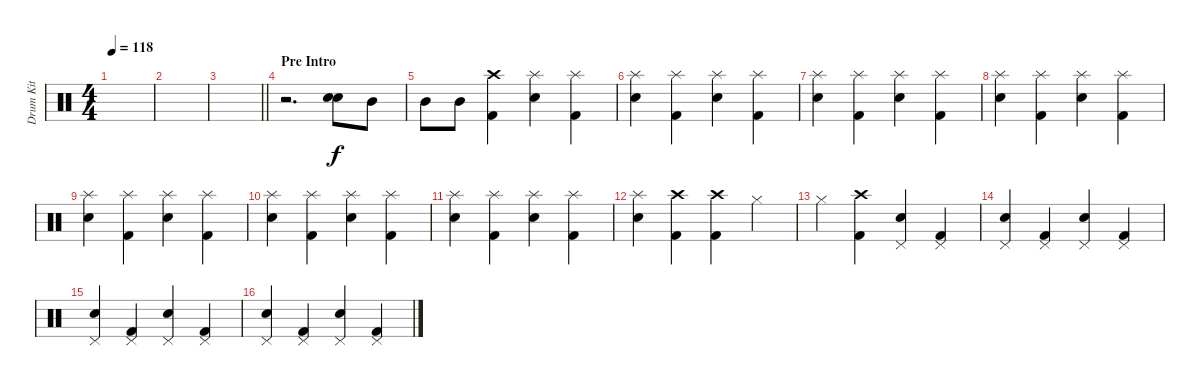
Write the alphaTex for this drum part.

\track ("Drum Kit" "Drum Kit") {instrument percussion}
\staff {score}
\articulation defaults
\ts (4 4)
\tempo 118
\clef neutral
\ks c
|
|
\barLineRight lightlight
|
\section ("" "Pre Intro")
r.2{d} ("Electric Snare (hit)" "Electric Snare (hit)").8{bd 240} "Mid Tom (hit)".8 |
"Mid Tom (hit)".8 "Mid Tom (hit)".8 ("Crash high (hit)" "Kick (hit) 2").4 ("Splash (hit)" "Electric Snare (hit)").4 ("Kick (hit) 2" "Splash (hit)").4 |
("Electric Snare (hit)" "Splash (hit)").4 ("Kick (hit) 2" "Splash (hit)").4 ("Electric Snare (hit)" "Splash (hit)").4 ("Splash (hit)" "Kick (hit) 2").4 |
("Splash (hit)" "Electric Snare (hit)").4 ("Kick (hit) 2" "Splash (hit)").4 ("Electric Snare (hit)" "Splash (hit)").4 ("Kick (hit) 2" "Splash (hit)").4 |
("Splash (hit)" "Electric Snare (hit)").4 ("Splash (hit)" "Kick (hit) 2").4 ("Splash (hit)" "Electric Snare (hit)").4 ("Kick (hit) 2" "Splash (hit)").4 |
("Electric Snare (hit)" "Splash (hit)").4 ("Kick (hit) 2" "Splash (hit)").4 ("Electric Snare (hit)" "Splash (hit)").4 ("Splash (hit)" "Kick (hit) 2").4 |
("Splash (hit)" "Electric Snare (hit)").4 ("Splash (hit)" "Kick (hit) 2").4 ("Splash (hit)" "Electric Snare (hit)").4 ("Kick (hit) 2" "Splash (hit)").4 |
("Splash (hit)" "Electric Snare (hit)").4 ("Splash (hit)" "Kick (hit) 2").4 ("Electric Snare (hit)" "Splash (hit)").4 ("Kick (hit) 2" "Splash (hit)").4 |
("Electric Snare (hit)" "Splash (hit)").4 ("Kick (hit) 2" "Crash high (hit)").4 ("Crash high (hit)" "Kick (hit) 2").4 "Hi-Hat (closed)".4 |
"Hi-Hat (closed)".4 ("Crash high (hit)" "Kick (hit) 2").4 ("Electric Snare (hit)" "Pedal Hi-Hat (hit)").4 ("Kick (hit) 2" "Pedal Hi-Hat (hit)").4 |
("Electric Snare (hit)" "Pedal Hi-Hat (hit)").4 ("Pedal Hi-Hat (hit)" "Kick (hit) 2").4 ("Pedal Hi-Hat (hit)" "Electric Snare (hit)").4 ("Pedal Hi-Hat (hit)" "Kick (hit) 2").4 |
("Pedal Hi-Hat (hit)" "Electric Snare (hit)").4 ("Kick (hit) 2" "Pedal Hi-Hat (hit)").4 ("Electric Snare (hit)" "Pedal Hi-Hat (hit)").4 ("Kick (hit) 2" "Pedal Hi-Hat (hit)").4 |
("Pedal Hi-Hat (hit)" "Electric Snare (hit)").4 ("Pedal Hi-Hat (hit)" "Kick (hit) 2").4 ("Pedal Hi-Hat (hit)" "Electric Snare (hit)").4 ("Kick (hit) 2" "Pedal Hi-Hat (hit)").4
